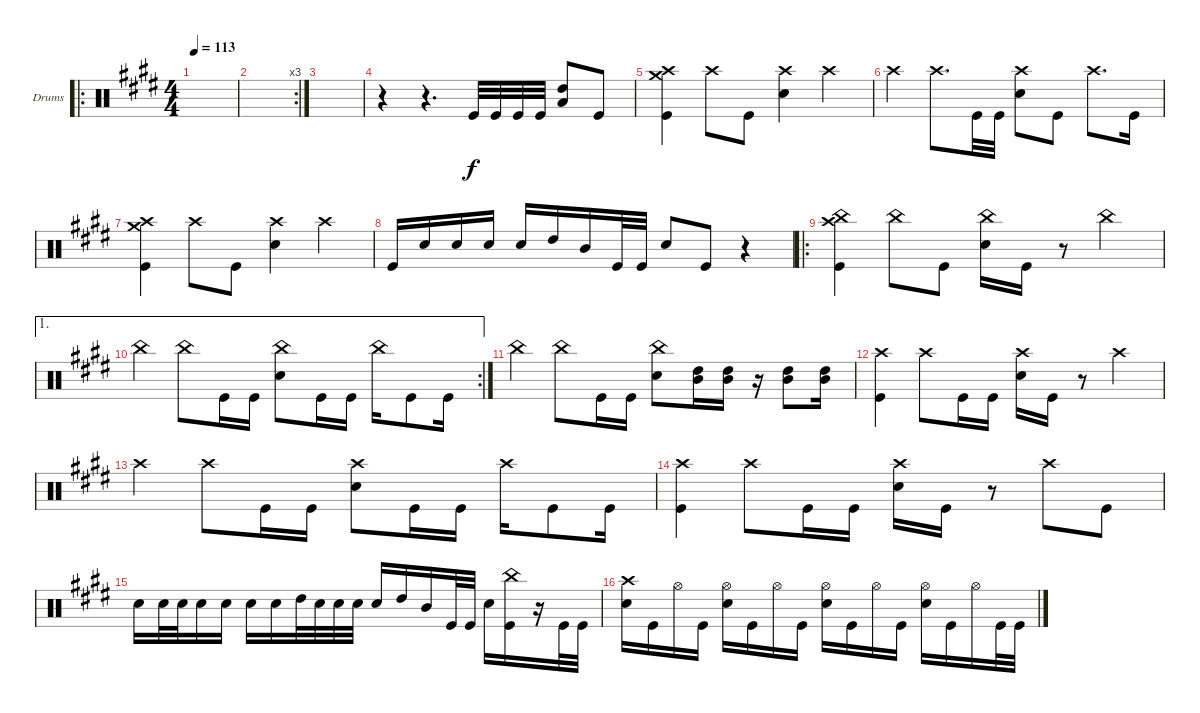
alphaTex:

\bracketExtendMode groupsimilarinstruments
\firstSystemTrackNameOrientation horizontal
\otherSystemsTrackNameOrientation horizontal
\track ("Drumkit" "Drums") {instrument percussion}
\staff {score}
\articulation defaults
\ro
\ts (4 4)
\tempo 113
\clef neutral
\ks e
|
\rc 3
|
|
r.4 r.4{d} "Kick (hit)".32 "Kick (hit)".32 "Kick (hit)".32 "Kick (hit)".32 ("High Tom (hit)" "Low Tom (hit)").8 "Kick (hit)".8 |
("Kick (hit)" "Crash high (hit)" "Crash medium (hit)").4 "Crash high (hit)".8 "Kick (hit)".8 ("Snare (hit) 2" "Crash high (hit)").4 "Crash high (hit)".4 |
"Crash high (hit)".4 "Crash high (hit)".8{d} "Kick (hit)".32 "Kick (hit)".32 ("Snare (hit) 2" "Crash high (hit)").8 "Kick (hit)".8 "Crash high (hit)".8{d} "Kick (hit)".16 |
("Kick (hit)" "Crash high (hit)" "Crash medium (hit)").4 "Crash high (hit)".8 "Kick (hit)".8 ("Snare (hit) 2" "Crash high (hit)").4 "Crash high (hit)".4 |
"Kick (hit)".16 "Snare (hit) 2".16 "Snare (hit) 2".16 "Snare (hit) 2".16 "Snare (hit) 2".16 "High Tom (hit)".16 "Mid Tom (hit)".16 "Kick (hit)".32 "Kick (hit)".32 "Snare (hit) 2".8 "Kick (hit)".8 r.4 |
\ro
("Crash high (hit)" "Kick (hit)" "China (hit)").4 "China (hit)".8 "Kick (hit)".8 ("Snare (hit) 2" "China (hit)").16 "Kick (hit)".16 r.8 "China (hit)".4 |
\ae 1
\rc 2 "China (hit)".4 "China (hit)".8 "Kick (hit)".16 "Kick (hit)".16
("Snare (hit) 2" "China (hit)").8 "Kick (hit)".16 "Kick (hit)".16 "China (hit)".16 "Kick (hit)".8 "Kick (hit)".16 |
"China (hit)".4 "China (hit)".8 "Kick (hit)".16 "Kick (hit)".16 ("Snare (hit) 2" "China (hit)").8 ("High Tom (hit)" "Mid Tom (hit)").16 ("High Tom (hit)" "Mid Tom (hit)").16 r.16 ("High Tom (hit)" "Mid Tom (hit)").8 ("High Tom (hit)" "Mid Tom (hit)").16 |
("Kick (hit)" "Crash high (hit)").4 "Crash high (hit)".8 "Kick (hit)".16 "Kick (hit)".16 ("Snare (hit) 2" "Crash high (hit)").16 "Kick (hit)".16 r.8 "Crash high (hit)".4 |
"Crash high (hit)".4 "Crash high (hit)".8 "Kick (hit)".16 "Kick (hit)".16 ("Snare (hit) 2" "Crash high (hit)").8 "Kick (hit)".16 "Kick (hit)".16 "Crash high (hit)".16 "Kick (hit)".8 "Kick (hit)".16 |
("Kick (hit)" "Crash high (hit)").4 "Crash high (hit)".8 "Kick (hit)".16 "Kick (hit)".16 ("Snare (hit) 2" "Crash high (hit)").16 "Kick (hit)".16 r.8 "Crash high (hit)".8 "Kick (hit)".8 |
"Snare (hit) 2".16 "Snare (hit) 2".32 "Snare (hit) 2".32 "Snare (hit) 2".16 "Snare (hit) 2".16 "Snare (hit) 2".16 "Snare (hit) 2".16 "High Tom (hit)".32 "Snare (hit) 2".32 "Snare (hit) 2".32 "Snare (hit) 2".32 "Snare (hit) 2".16 "High Tom (hit)".16 "Mid Tom (hit)".16 "Kick (hit)".32 "Kick (hit)".32 "Snare (hit) 2".16 ("Kick (hit)" "China (hit)").16 r.16 "Kick (hit)".32 "Kick (hit)".32 |
("Snare (hit) 2" "Crash high (hit)").16 "Kick (hit)".16 "Hi-Hat (open)".16 "Kick (hit)".16 ("Snare (hit) 2" "Hi-Hat (open)").16 "Kick (hit)".16 "Hi-Hat (open)".16 "Kick (hit)".16 ("Snare (hit) 2" "Hi-Hat (open)").16 "Kick (hit)".16 "Hi-Hat (open)".16 "Kick (hit)".16 ("Snare (hit) 2" "Hi-Hat (open)").16 "Kick (hit)".16 "Hi-Hat (open)".16 "Kick (hit)".32 "Kick (hit)".32
